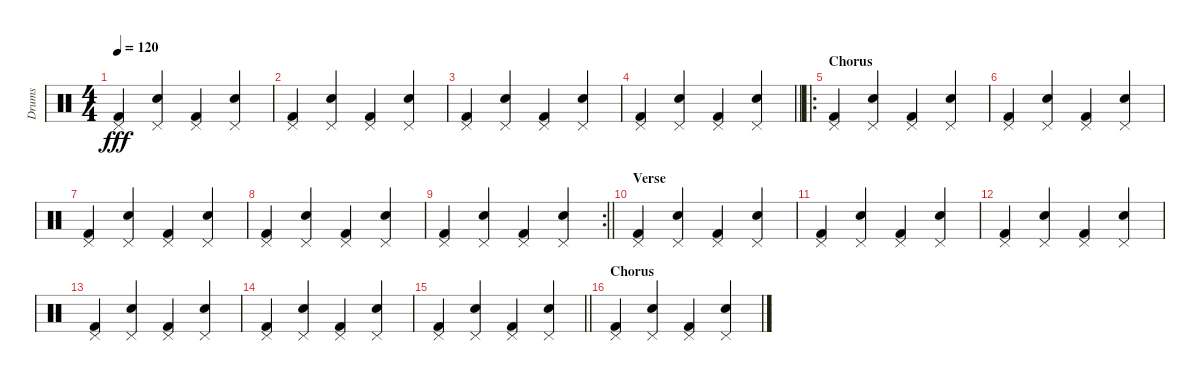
\track ("Drums" "Drums") {instrument percussion}
\staff {score}
\articulation defaults
\ts (4 4)
\tempo 120
\clef neutral
\ks c
("Pedal Hi-Hat (hit)" "Kick (hit) 2").4{dy fff} ("Pedal Hi-Hat (hit)" "Electric Snare (hit)").4 ("Pedal Hi-Hat (hit)" "Kick (hit) 2").4 ("Pedal Hi-Hat (hit)" "Electric Snare (hit)").4 |
("Pedal Hi-Hat (hit)" "Kick (hit) 2").4 ("Pedal Hi-Hat (hit)" "Electric Snare (hit)").4 ("Pedal Hi-Hat (hit)" "Kick (hit) 2").4 ("Pedal Hi-Hat (hit)" "Electric Snare (hit)").4 |
("Pedal Hi-Hat (hit)" "Kick (hit) 2").4 ("Pedal Hi-Hat (hit)" "Electric Snare (hit)").4 ("Pedal Hi-Hat (hit)" "Kick (hit) 2").4 ("Pedal Hi-Hat (hit)" "Electric Snare (hit)").4 |
\barLineRight lightlight
("Pedal Hi-Hat (hit)" "Kick (hit) 2").4 ("Pedal Hi-Hat (hit)" "Electric Snare (hit)").4 ("Pedal Hi-Hat (hit)" "Kick (hit) 2").4 ("Pedal Hi-Hat (hit)" "Electric Snare (hit)").4 |
\ro
\section ("" "Chorus")
("Pedal Hi-Hat (hit)" "Kick (hit) 2").4 ("Pedal Hi-Hat (hit)" "Electric Snare (hit)").4 ("Pedal Hi-Hat (hit)" "Kick (hit) 2").4 ("Pedal Hi-Hat (hit)" "Electric Snare (hit)").4 |
("Pedal Hi-Hat (hit)" "Kick (hit) 2").4 ("Pedal Hi-Hat (hit)" "Electric Snare (hit)").4 ("Pedal Hi-Hat (hit)" "Kick (hit) 2").4 ("Pedal Hi-Hat (hit)" "Electric Snare (hit)").4 |
("Pedal Hi-Hat (hit)" "Kick (hit) 2").4 ("Pedal Hi-Hat (hit)" "Electric Snare (hit)").4 ("Pedal Hi-Hat (hit)" "Kick (hit) 2").4 ("Pedal Hi-Hat (hit)" "Electric Snare (hit)").4 |
("Pedal Hi-Hat (hit)" "Kick (hit) 2").4 ("Pedal Hi-Hat (hit)" "Electric Snare (hit)").4 ("Pedal Hi-Hat (hit)" "Kick (hit) 2").4 ("Pedal Hi-Hat (hit)" "Electric Snare (hit)").4 |
\rc 2
\barLineRight lightlight
("Pedal Hi-Hat (hit)" "Kick (hit) 2").4 ("Pedal Hi-Hat (hit)" "Electric Snare (hit)").4 ("Pedal Hi-Hat (hit)" "Kick (hit) 2").4 ("Pedal Hi-Hat (hit)" "Electric Snare (hit)").4 |
\section ("" "Verse")
("Pedal Hi-Hat (hit)" "Kick (hit) 2").4 ("Pedal Hi-Hat (hit)" "Electric Snare (hit)").4 ("Pedal Hi-Hat (hit)" "Kick (hit) 2").4 ("Pedal Hi-Hat (hit)" "Electric Snare (hit)").4 |
("Pedal Hi-Hat (hit)" "Kick (hit) 2").4 ("Pedal Hi-Hat (hit)" "Electric Snare (hit)").4 ("Pedal Hi-Hat (hit)" "Kick (hit) 2").4 ("Pedal Hi-Hat (hit)" "Electric Snare (hit)").4 |
("Pedal Hi-Hat (hit)" "Kick (hit) 2").4 ("Pedal Hi-Hat (hit)" "Electric Snare (hit)").4 ("Pedal Hi-Hat (hit)" "Kick (hit) 2").4 ("Pedal Hi-Hat (hit)" "Electric Snare (hit)").4 |
("Pedal Hi-Hat (hit)" "Kick (hit) 2").4 ("Pedal Hi-Hat (hit)" "Electric Snare (hit)").4 ("Pedal Hi-Hat (hit)" "Kick (hit) 2").4 ("Pedal Hi-Hat (hit)" "Electric Snare (hit)").4 |
("Pedal Hi-Hat (hit)" "Kick (hit) 2").4 ("Pedal Hi-Hat (hit)" "Electric Snare (hit)").4 ("Pedal Hi-Hat (hit)" "Kick (hit) 2").4 ("Pedal Hi-Hat (hit)" "Electric Snare (hit)").4 |
\barLineRight lightlight
("Pedal Hi-Hat (hit)" "Kick (hit) 2").4 ("Pedal Hi-Hat (hit)" "Electric Snare (hit)").4 ("Pedal Hi-Hat (hit)" "Kick (hit) 2").4 ("Pedal Hi-Hat (hit)" "Electric Snare (hit)").4 |
\section ("" "Chorus")
("Pedal Hi-Hat (hit)" "Kick (hit) 2").4 ("Pedal Hi-Hat (hit)" "Electric Snare (hit)").4 ("Pedal Hi-Hat (hit)" "Kick (hit) 2").4 ("Pedal Hi-Hat (hit)" "Electric Snare (hit)").4
